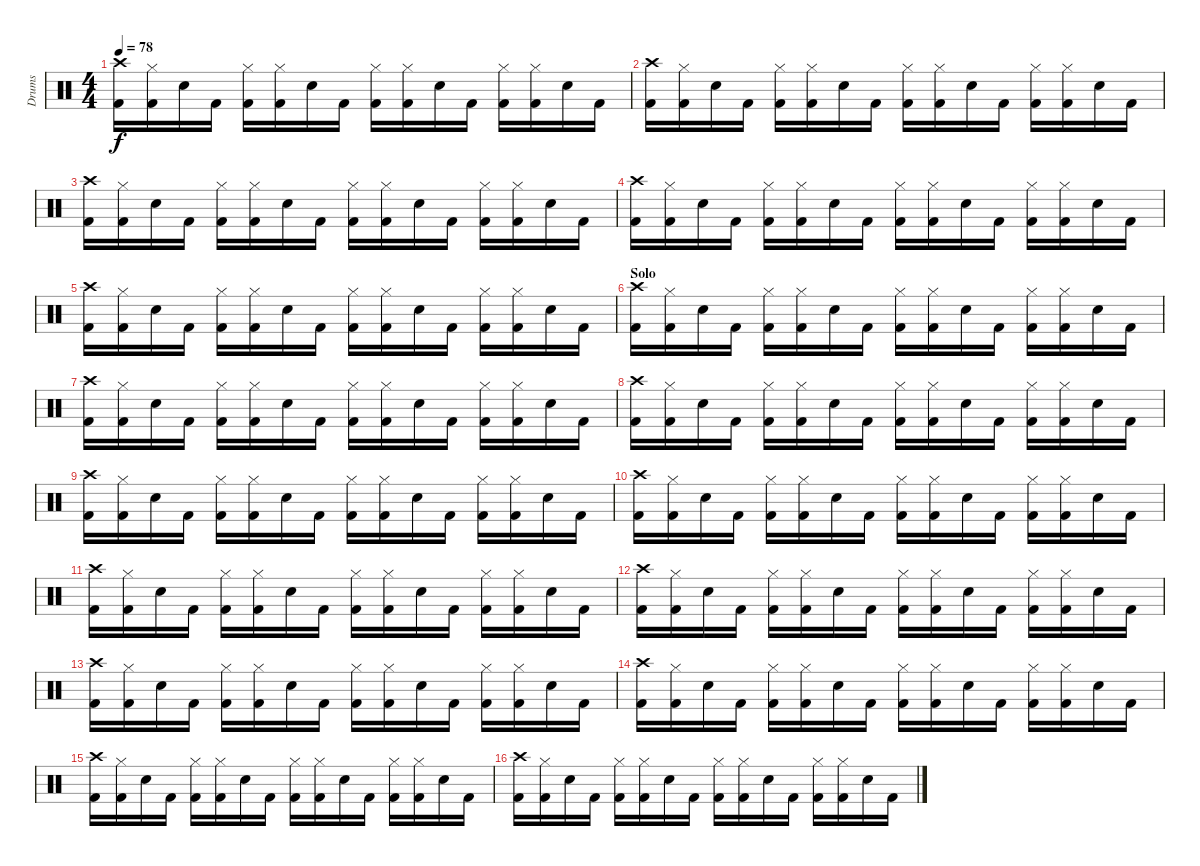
\track ("Drums" "Drums") {instrument percussion}
\staff {score}
\articulation defaults
\ts (4 4)
\tempo 78
\clef neutral
\ks c
("Crash high (hit)" "Kick (hit) 2").16{dy f} ("Hi-Hat (closed)" "Kick (hit) 2").16 "Electric Snare (hit)".16 "Kick (hit) 2".16 ("Hi-Hat (closed)" "Kick (hit) 2").16 ("Hi-Hat (closed)" "Kick (hit) 2").16 "Electric Snare (hit)".16 "Kick (hit) 2".16 ("Hi-Hat (closed)" "Kick (hit) 2").16 ("Hi-Hat (closed)" "Kick (hit) 2").16 "Electric Snare (hit)".16 "Kick (hit) 2".16 ("Hi-Hat (closed)" "Kick (hit) 2").16 ("Hi-Hat (closed)" "Kick (hit) 2").16 "Electric Snare (hit)".16 "Kick (hit) 2".16 |
("Crash high (hit)" "Kick (hit) 2").16 ("Hi-Hat (closed)" "Kick (hit) 2").16 "Electric Snare (hit)".16 "Kick (hit) 2".16 ("Hi-Hat (closed)" "Kick (hit) 2").16 ("Hi-Hat (closed)" "Kick (hit) 2").16 "Electric Snare (hit)".16 "Kick (hit) 2".16 ("Hi-Hat (closed)" "Kick (hit) 2").16 ("Hi-Hat (closed)" "Kick (hit) 2").16 "Electric Snare (hit)".16 "Kick (hit) 2".16 ("Hi-Hat (closed)" "Kick (hit) 2").16 ("Hi-Hat (closed)" "Kick (hit) 2").16 "Electric Snare (hit)".16 "Kick (hit) 2".16 |
("Crash high (hit)" "Kick (hit) 2").16 ("Hi-Hat (closed)" "Kick (hit) 2").16 "Electric Snare (hit)".16 "Kick (hit) 2".16 ("Hi-Hat (closed)" "Kick (hit) 2").16 ("Hi-Hat (closed)" "Kick (hit) 2").16 "Electric Snare (hit)".16 "Kick (hit) 2".16 ("Hi-Hat (closed)" "Kick (hit) 2").16 ("Hi-Hat (closed)" "Kick (hit) 2").16 "Electric Snare (hit)".16 "Kick (hit) 2".16 ("Hi-Hat (closed)" "Kick (hit) 2").16 ("Hi-Hat (closed)" "Kick (hit) 2").16 "Electric Snare (hit)".16 "Kick (hit) 2".16 |
("Crash high (hit)" "Kick (hit) 2").16 ("Hi-Hat (closed)" "Kick (hit) 2").16 "Electric Snare (hit)".16 "Kick (hit) 2".16 ("Hi-Hat (closed)" "Kick (hit) 2").16 ("Hi-Hat (closed)" "Kick (hit) 2").16 "Electric Snare (hit)".16 "Kick (hit) 2".16 ("Hi-Hat (closed)" "Kick (hit) 2").16 ("Hi-Hat (closed)" "Kick (hit) 2").16 "Electric Snare (hit)".16 "Kick (hit) 2".16 ("Hi-Hat (closed)" "Kick (hit) 2").16 ("Hi-Hat (closed)" "Kick (hit) 2").16 "Electric Snare (hit)".16 "Kick (hit) 2".16 |
("Crash high (hit)" "Kick (hit) 2").16 ("Hi-Hat (closed)" "Kick (hit) 2").16 "Electric Snare (hit)".16 "Kick (hit) 2".16 ("Hi-Hat (closed)" "Kick (hit) 2").16 ("Hi-Hat (closed)" "Kick (hit) 2").16 "Electric Snare (hit)".16 "Kick (hit) 2".16 ("Hi-Hat (closed)" "Kick (hit) 2").16 ("Hi-Hat (closed)" "Kick (hit) 2").16 "Electric Snare (hit)".16 "Kick (hit) 2".16 ("Hi-Hat (closed)" "Kick (hit) 2").16 ("Hi-Hat (closed)" "Kick (hit) 2").16 "Electric Snare (hit)".16 "Kick (hit) 2".16 |
\section ("" "Solo")
("Crash high (hit)" "Kick (hit) 2").16 ("Hi-Hat (closed)" "Kick (hit) 2").16 "Electric Snare (hit)".16 "Kick (hit) 2".16 ("Hi-Hat (closed)" "Kick (hit) 2").16 ("Hi-Hat (closed)" "Kick (hit) 2").16 "Electric Snare (hit)".16 "Kick (hit) 2".16 ("Hi-Hat (closed)" "Kick (hit) 2").16 ("Hi-Hat (closed)" "Kick (hit) 2").16 "Electric Snare (hit)".16 "Kick (hit) 2".16 ("Hi-Hat (closed)" "Kick (hit) 2").16 ("Hi-Hat (closed)" "Kick (hit) 2").16 "Electric Snare (hit)".16 "Kick (hit) 2".16 |
("Crash high (hit)" "Kick (hit) 2").16 ("Hi-Hat (closed)" "Kick (hit) 2").16 "Electric Snare (hit)".16 "Kick (hit) 2".16 ("Hi-Hat (closed)" "Kick (hit) 2").16 ("Hi-Hat (closed)" "Kick (hit) 2").16 "Electric Snare (hit)".16 "Kick (hit) 2".16 ("Hi-Hat (closed)" "Kick (hit) 2").16 ("Hi-Hat (closed)" "Kick (hit) 2").16 "Electric Snare (hit)".16 "Kick (hit) 2".16 ("Hi-Hat (closed)" "Kick (hit) 2").16 ("Hi-Hat (closed)" "Kick (hit) 2").16 "Electric Snare (hit)".16 "Kick (hit) 2".16 |
("Crash high (hit)" "Kick (hit) 2").16 ("Hi-Hat (closed)" "Kick (hit) 2").16 "Electric Snare (hit)".16 "Kick (hit) 2".16 ("Hi-Hat (closed)" "Kick (hit) 2").16 ("Hi-Hat (closed)" "Kick (hit) 2").16 "Electric Snare (hit)".16 "Kick (hit) 2".16 ("Hi-Hat (closed)" "Kick (hit) 2").16 ("Hi-Hat (closed)" "Kick (hit) 2").16 "Electric Snare (hit)".16 "Kick (hit) 2".16 ("Hi-Hat (closed)" "Kick (hit) 2").16 ("Hi-Hat (closed)" "Kick (hit) 2").16 "Electric Snare (hit)".16 "Kick (hit) 2".16 |
("Crash high (hit)" "Kick (hit) 2").16 ("Hi-Hat (closed)" "Kick (hit) 2").16 "Electric Snare (hit)".16 "Kick (hit) 2".16 ("Hi-Hat (closed)" "Kick (hit) 2").16 ("Hi-Hat (closed)" "Kick (hit) 2").16 "Electric Snare (hit)".16 "Kick (hit) 2".16 ("Hi-Hat (closed)" "Kick (hit) 2").16 ("Hi-Hat (closed)" "Kick (hit) 2").16 "Electric Snare (hit)".16 "Kick (hit) 2".16 ("Hi-Hat (closed)" "Kick (hit) 2").16 ("Hi-Hat (closed)" "Kick (hit) 2").16 "Electric Snare (hit)".16 "Kick (hit) 2".16 |
("Crash high (hit)" "Kick (hit) 2").16 ("Hi-Hat (closed)" "Kick (hit) 2").16 "Electric Snare (hit)".16 "Kick (hit) 2".16 ("Hi-Hat (closed)" "Kick (hit) 2").16 ("Hi-Hat (closed)" "Kick (hit) 2").16 "Electric Snare (hit)".16 "Kick (hit) 2".16 ("Hi-Hat (closed)" "Kick (hit) 2").16 ("Hi-Hat (closed)" "Kick (hit) 2").16 "Electric Snare (hit)".16 "Kick (hit) 2".16 ("Hi-Hat (closed)" "Kick (hit) 2").16 ("Hi-Hat (closed)" "Kick (hit) 2").16 "Electric Snare (hit)".16 "Kick (hit) 2".16 |
("Crash high (hit)" "Kick (hit) 2").16 ("Hi-Hat (closed)" "Kick (hit) 2").16 "Electric Snare (hit)".16 "Kick (hit) 2".16 ("Hi-Hat (closed)" "Kick (hit) 2").16 ("Hi-Hat (closed)" "Kick (hit) 2").16 "Electric Snare (hit)".16 "Kick (hit) 2".16 ("Hi-Hat (closed)" "Kick (hit) 2").16 ("Hi-Hat (closed)" "Kick (hit) 2").16 "Electric Snare (hit)".16 "Kick (hit) 2".16 ("Hi-Hat (closed)" "Kick (hit) 2").16 ("Hi-Hat (closed)" "Kick (hit) 2").16 "Electric Snare (hit)".16 "Kick (hit) 2".16 |
("Crash high (hit)" "Kick (hit) 2").16 ("Hi-Hat (closed)" "Kick (hit) 2").16 "Electric Snare (hit)".16 "Kick (hit) 2".16 ("Hi-Hat (closed)" "Kick (hit) 2").16 ("Hi-Hat (closed)" "Kick (hit) 2").16 "Electric Snare (hit)".16 "Kick (hit) 2".16 ("Hi-Hat (closed)" "Kick (hit) 2").16 ("Hi-Hat (closed)" "Kick (hit) 2").16 "Electric Snare (hit)".16 "Kick (hit) 2".16 ("Hi-Hat (closed)" "Kick (hit) 2").16 ("Hi-Hat (closed)" "Kick (hit) 2").16 "Electric Snare (hit)".16 "Kick (hit) 2".16 |
("Crash high (hit)" "Kick (hit) 2").16 ("Hi-Hat (closed)" "Kick (hit) 2").16 "Electric Snare (hit)".16 "Kick (hit) 2".16 ("Hi-Hat (closed)" "Kick (hit) 2").16 ("Hi-Hat (closed)" "Kick (hit) 2").16 "Electric Snare (hit)".16 "Kick (hit) 2".16 ("Hi-Hat (closed)" "Kick (hit) 2").16 ("Hi-Hat (closed)" "Kick (hit) 2").16 "Electric Snare (hit)".16 "Kick (hit) 2".16 ("Hi-Hat (closed)" "Kick (hit) 2").16 ("Hi-Hat (closed)" "Kick (hit) 2").16 "Electric Snare (hit)".16 "Kick (hit) 2".16 |
("Crash high (hit)" "Kick (hit) 2").16 ("Hi-Hat (closed)" "Kick (hit) 2").16 "Electric Snare (hit)".16 "Kick (hit) 2".16 ("Hi-Hat (closed)" "Kick (hit) 2").16 ("Hi-Hat (closed)" "Kick (hit) 2").16 "Electric Snare (hit)".16 "Kick (hit) 2".16 ("Hi-Hat (closed)" "Kick (hit) 2").16 ("Hi-Hat (closed)" "Kick (hit) 2").16 "Electric Snare (hit)".16 "Kick (hit) 2".16 ("Hi-Hat (closed)" "Kick (hit) 2").16 ("Hi-Hat (closed)" "Kick (hit) 2").16 "Electric Snare (hit)".16 "Kick (hit) 2".16 |
("Crash high (hit)" "Kick (hit) 2").16 ("Hi-Hat (closed)" "Kick (hit) 2").16 "Electric Snare (hit)".16 "Kick (hit) 2".16 ("Hi-Hat (closed)" "Kick (hit) 2").16 ("Hi-Hat (closed)" "Kick (hit) 2").16 "Electric Snare (hit)".16 "Kick (hit) 2".16 ("Hi-Hat (closed)" "Kick (hit) 2").16 ("Hi-Hat (closed)" "Kick (hit) 2").16 "Electric Snare (hit)".16 "Kick (hit) 2".16 ("Hi-Hat (closed)" "Kick (hit) 2").16 ("Hi-Hat (closed)" "Kick (hit) 2").16 "Electric Snare (hit)".16 "Kick (hit) 2".16 |
("Crash high (hit)" "Kick (hit) 2").16 ("Hi-Hat (closed)" "Kick (hit) 2").16 "Electric Snare (hit)".16 "Kick (hit) 2".16 ("Hi-Hat (closed)" "Kick (hit) 2").16 ("Hi-Hat (closed)" "Kick (hit) 2").16 "Electric Snare (hit)".16 "Kick (hit) 2".16 ("Hi-Hat (closed)" "Kick (hit) 2").16 ("Hi-Hat (closed)" "Kick (hit) 2").16 "Electric Snare (hit)".16 "Kick (hit) 2".16 ("Hi-Hat (closed)" "Kick (hit) 2").16 ("Hi-Hat (closed)" "Kick (hit) 2").16 "Electric Snare (hit)".16 "Kick (hit) 2".16
